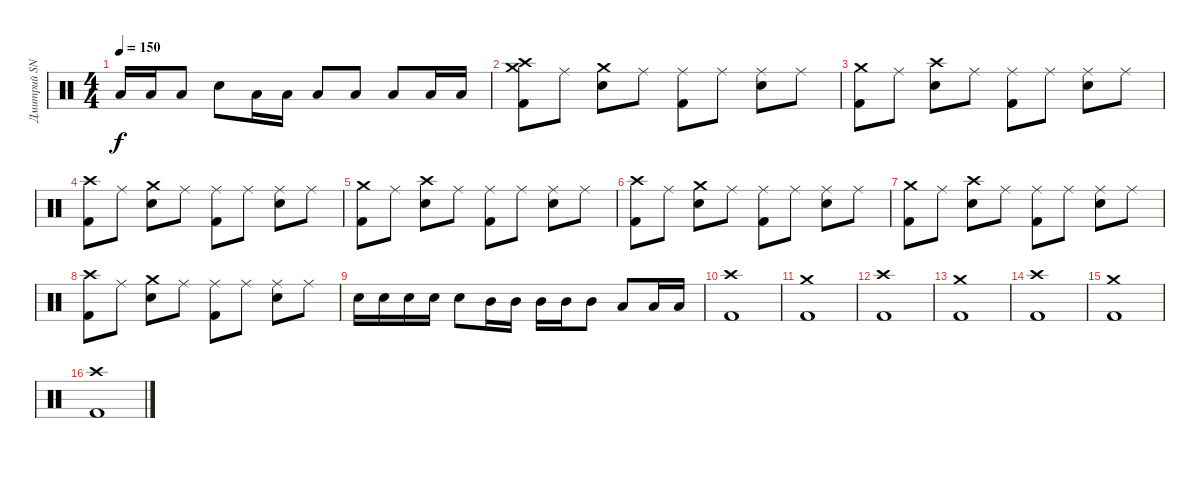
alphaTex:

\track ("Дмитрий SNAKE Хакимов" "Дмитрий SN") {instrument percussion}
\staff {score}
\articulation defaults
\ts (4 4)
\tempo 150
\clef neutral
\ks c "Low Tom (hit)".16{dy f} "Low Tom (hit)".16 "Low Tom (hit)".8 "Snare (hit) 2".8 "Low Tom (hit)".16 "Low Tom (hit)".16 "Low Tom (hit)".8 "Low Tom (hit)".8 "Low Tom (hit)".8 "Low Tom (hit)".16 "Low Tom (hit)".16
|
("Crash high (hit)" "Crash medium (hit)" "Kick (hit) 2").8 "Ride (middle)".8 ("Crash medium (hit)" "Snare (hit) 2").8 "Ride (middle)".8 ("Ride (middle)" "Kick (hit) 2").8 "Ride (middle)".8 ("Ride (middle)" "Snare (hit) 2").8 "Ride (middle)".8 |
("Crash medium (hit)" "Kick (hit) 2").8 "Ride (middle)".8 ("Crash high (hit)" "Snare (hit) 2").8 "Ride (middle)".8 ("Ride (middle)" "Kick (hit) 2").8 "Ride (middle)".8 ("Ride (middle)" "Snare (hit) 2").8 "Ride (middle)".8 |
("Crash high (hit)" "Kick (hit) 2").8 "Ride (middle)".8 ("Crash medium (hit)" "Snare (hit) 2").8 "Ride (middle)".8 ("Ride (middle)" "Kick (hit) 2").8 "Ride (middle)".8 ("Ride (middle)" "Snare (hit) 2").8 "Ride (middle)".8 |
("Crash medium (hit)" "Kick (hit) 2").8 "Ride (middle)".8 ("Crash high (hit)" "Snare (hit) 2").8 "Ride (middle)".8 ("Ride (middle)" "Kick (hit) 2").8 "Ride (middle)".8 ("Ride (middle)" "Snare (hit) 2").8 "Ride (middle)".8 |
("Crash high (hit)" "Kick (hit) 2").8 "Ride (middle)".8 ("Crash medium (hit)" "Snare (hit) 2").8 "Ride (middle)".8 ("Ride (middle)" "Kick (hit) 2").8 "Ride (middle)".8 ("Ride (middle)" "Snare (hit) 2").8 "Ride (middle)".8 |
("Crash medium (hit)" "Kick (hit) 2").8 "Ride (middle)".8 ("Crash high (hit)" "Snare (hit) 2").8 "Ride (middle)".8 ("Ride (middle)" "Kick (hit) 2").8 "Ride (middle)".8 ("Ride (middle)" "Snare (hit) 2").8 "Ride (middle)".8 |
("Crash high (hit)" "Kick (hit) 2").8 "Ride (middle)".8 ("Crash medium (hit)" "Snare (hit) 2").8 "Ride (middle)".8 ("Ride (middle)" "Kick (hit) 2").8 "Ride (middle)".8 ("Ride (middle)" "Snare (hit) 2").8 "Ride (middle)".8 |
"Snare (hit) 2".16 "Snare (hit) 2".16 "Snare (hit) 2".16 "Snare (hit) 2".16 "Snare (hit) 2".8 "Mid Tom (hit)".16 "Mid Tom (hit)".16 "Mid Tom (hit)".16 "Mid Tom (hit)".16 "Mid Tom (hit)".8 "Low Tom (hit)".8 "Low Tom (hit)".16 "Low Tom (hit)".16 |
("Crash high (hit)" "Kick (hit) 2").1 |
("Crash medium (hit)" "Kick (hit) 2").1 |
("Crash high (hit)" "Kick (hit) 2").1 |
("Crash medium (hit)" "Kick (hit) 2").1 |
("Crash high (hit)" "Kick (hit) 2").1 |
("Crash medium (hit)" "Kick (hit) 2").1 |
("Crash high (hit)" "Kick (hit) 2").1
